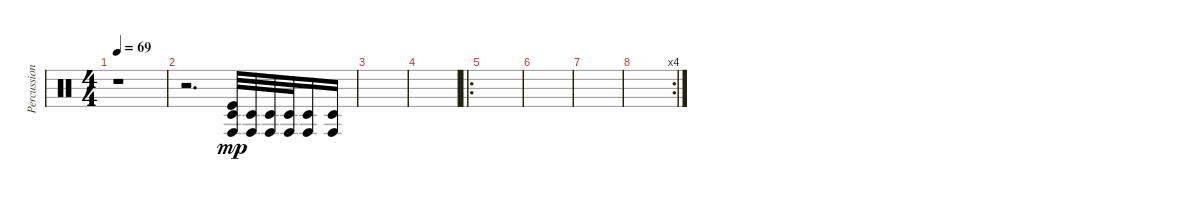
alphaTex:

\track ("Percussion" "Percussion") {instrument percussion}
\staff {score}
\articulation defaults
\ts (4 4)
\tempo 69
\clef neutral
\ks c
r.1{dy mp} |
r.2{d} ("Conga high (hit)" "Timbale low (hit)" "Kick (hit)").32 ("Conga high (hit)" "Timbale low (hit)").32 ("Conga high (hit)" "Timbale low (hit)").32 ("Conga high (hit)" "Timbale low (hit)").32 ("Conga high (hit)" "Timbale low (hit)").16 ("Conga high (hit)" "Timbale low (hit)").16 |
|
|
\ro
|
|
|
\rc 4
